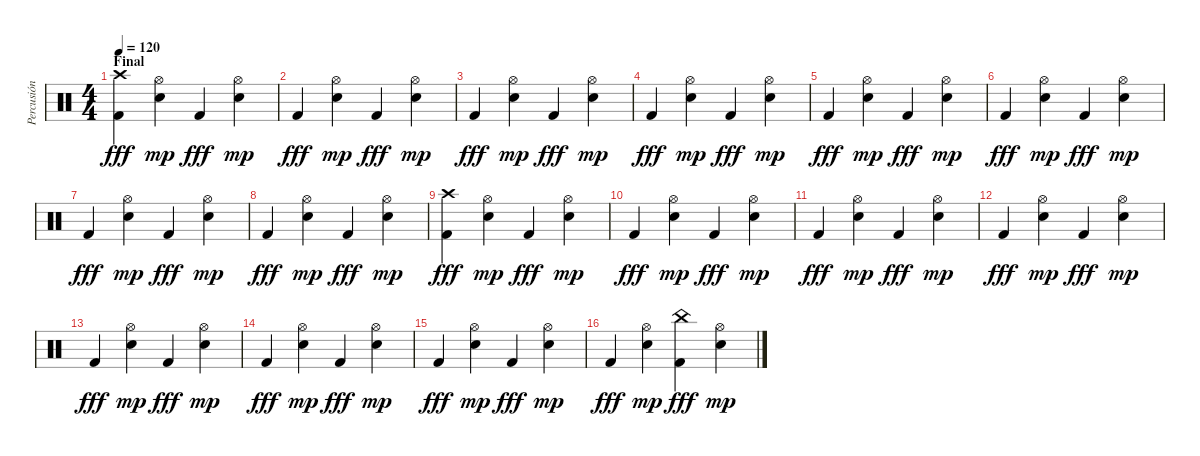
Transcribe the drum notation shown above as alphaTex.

\track ("Percusión" "Percusión") {instrument percussion}
\staff {score}
\articulation defaults
\ts (4 4)
\section ("" "Final")
\tempo 120
\clef neutral
\ks c
("Crash high (hit)" "Kick (hit) 2").4{dy fff volume 10} ("Hi-Hat (open)" "Snare (hit) 2").4{dy mp} "Kick (hit) 2".4{dy fff} ("Hi-Hat (open)" "Snare (hit) 2").4{dy mp} |
"Kick (hit) 2".4{dy fff} ("Hi-Hat (open)" "Snare (hit) 2").4{dy mp} "Kick (hit) 2".4{dy fff} ("Hi-Hat (open)" "Snare (hit) 2").4{dy mp} |
"Kick (hit) 2".4{dy fff} ("Hi-Hat (open)" "Snare (hit) 2").4{dy mp} "Kick (hit) 2".4{dy fff} ("Hi-Hat (open)" "Snare (hit) 2").4{dy mp} |
"Kick (hit) 2".4{dy fff} ("Hi-Hat (open)" "Snare (hit) 2").4{dy mp} "Kick (hit) 2".4{dy fff} ("Hi-Hat (open)" "Snare (hit) 2").4{dy mp} |
"Kick (hit) 2".4{dy fff} ("Hi-Hat (open)" "Snare (hit) 2").4{dy mp} "Kick (hit) 2".4{dy fff} ("Hi-Hat (open)" "Snare (hit) 2").4{dy mp} |
"Kick (hit) 2".4{dy fff} ("Hi-Hat (open)" "Snare (hit) 2").4{dy mp} "Kick (hit) 2".4{dy fff} ("Hi-Hat (open)" "Snare (hit) 2").4{dy mp} |
"Kick (hit) 2".4{dy fff} ("Hi-Hat (open)" "Snare (hit) 2").4{dy mp} "Kick (hit) 2".4{dy fff} ("Hi-Hat (open)" "Snare (hit) 2").4{dy mp} |
"Kick (hit) 2".4{dy fff} ("Hi-Hat (open)" "Snare (hit) 2").4{dy mp} "Kick (hit) 2".4{dy fff} ("Hi-Hat (open)" "Snare (hit) 2").4{dy mp} |
("Crash high (hit)" "Kick (hit) 2").4{dy fff} ("Hi-Hat (open)" "Snare (hit) 2").4{dy mp} "Kick (hit) 2".4{dy fff} ("Hi-Hat (open)" "Snare (hit) 2").4{dy mp} |
"Kick (hit) 2".4{dy fff} ("Hi-Hat (open)" "Snare (hit) 2").4{dy mp} "Kick (hit) 2".4{dy fff} ("Hi-Hat (open)" "Snare (hit) 2").4{dy mp} |
"Kick (hit) 2".4{dy fff} ("Hi-Hat (open)" "Snare (hit) 2").4{dy mp} "Kick (hit) 2".4{dy fff} ("Hi-Hat (open)" "Snare (hit) 2").4{dy mp} |
"Kick (hit) 2".4{dy fff} ("Hi-Hat (open)" "Snare (hit) 2").4{dy mp} "Kick (hit) 2".4{dy fff} ("Hi-Hat (open)" "Snare (hit) 2").4{dy mp} |
"Kick (hit) 2".4{dy fff} ("Hi-Hat (open)" "Snare (hit) 2").4{dy mp} "Kick (hit) 2".4{dy fff} ("Hi-Hat (open)" "Snare (hit) 2").4{dy mp} |
"Kick (hit) 2".4{dy fff} ("Hi-Hat (open)" "Snare (hit) 2").4{dy mp} "Kick (hit) 2".4{dy fff} ("Hi-Hat (open)" "Snare (hit) 2").4{dy mp} |
"Kick (hit) 2".4{dy fff} ("Hi-Hat (open)" "Snare (hit) 2").4{dy mp} "Kick (hit) 2".4{dy fff} ("Hi-Hat (open)" "Snare (hit) 2").4{dy mp} |
"Kick (hit) 2".4{dy fff} ("Hi-Hat (open)" "Snare (hit) 2").4{dy mp} ("China (hit)" "Kick (hit) 2").4{dy fff} ("Hi-Hat (open)" "Snare (hit) 2").4{dy mp}
